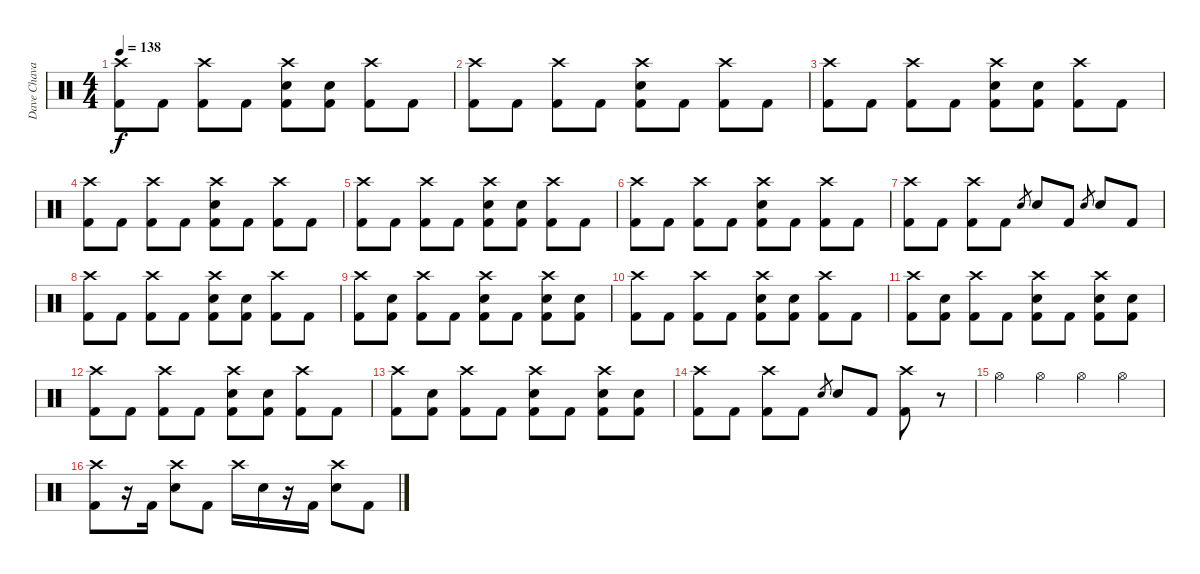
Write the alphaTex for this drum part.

\track ("Dave Chavarri - Drums" "Dave Chava") {instrument percussion}
\staff {score}
\articulation defaults
\ts (4 4)
\tempo 138
\clef neutral
\ks c
("Crash high (hit)" "Kick (hit) 2").8{dy f} "Kick (hit) 2".8 ("Crash high (hit)" "Kick (hit) 2").8 "Kick (hit) 2".8 ("Crash high (hit)" "Electric Snare (hit)" "Kick (hit) 2").8 ("Electric Snare (hit)" "Kick (hit) 2").8 ("Crash high (hit)" "Kick (hit) 2").8 "Kick (hit) 2".8 |
("Crash high (hit)" "Kick (hit) 2").8 "Kick (hit) 2".8 ("Crash high (hit)" "Kick (hit) 2").8 "Kick (hit) 2".8 ("Crash high (hit)" "Electric Snare (hit)" "Kick (hit) 2").8 "Kick (hit) 2".8 ("Crash high (hit)" "Kick (hit) 2").8 "Kick (hit) 2".8 |
("Crash high (hit)" "Kick (hit) 2").8 "Kick (hit) 2".8 ("Crash high (hit)" "Kick (hit) 2").8 "Kick (hit) 2".8 ("Crash high (hit)" "Electric Snare (hit)" "Kick (hit) 2").8 ("Electric Snare (hit)" "Kick (hit) 2").8 ("Crash high (hit)" "Kick (hit) 2").8 "Kick (hit) 2".8 |
("Crash high (hit)" "Kick (hit) 2").8 "Kick (hit) 2".8 ("Crash high (hit)" "Kick (hit) 2").8 "Kick (hit) 2".8 ("Crash high (hit)" "Electric Snare (hit)" "Kick (hit) 2").8 "Kick (hit) 2".8 ("Crash high (hit)" "Kick (hit) 2").8 "Kick (hit) 2".8 |
("Crash high (hit)" "Kick (hit) 2").8 "Kick (hit) 2".8 ("Crash high (hit)" "Kick (hit) 2").8 "Kick (hit) 2".8 ("Crash high (hit)" "Electric Snare (hit)" "Kick (hit) 2").8 ("Electric Snare (hit)" "Kick (hit) 2").8 ("Crash high (hit)" "Kick (hit) 2").8 "Kick (hit) 2".8 |
("Crash high (hit)" "Kick (hit) 2").8 "Kick (hit) 2".8 ("Crash high (hit)" "Kick (hit) 2").8 "Kick (hit) 2".8 ("Crash high (hit)" "Electric Snare (hit)" "Kick (hit) 2").8 "Kick (hit) 2".8 ("Crash high (hit)" "Kick (hit) 2").8 "Kick (hit) 2".8 |
("Crash high (hit)" "Kick (hit) 2").8 "Kick (hit) 2".8 ("Crash high (hit)" "Kick (hit) 2").8 "Kick (hit) 2".8 "Electric Snare (hit)".8{gr} "Electric Snare (hit)".8 "Kick (hit) 2".8 "Electric Snare (hit)".8{gr} "Electric Snare (hit)".8 "Kick (hit) 2".8 |
("Crash high (hit)" "Kick (hit) 2").8 "Kick (hit) 2".8 ("Crash high (hit)" "Kick (hit) 2").8 "Kick (hit) 2".8 ("Crash high (hit)" "Electric Snare (hit)" "Kick (hit) 2").8 ("Electric Snare (hit)" "Kick (hit) 2").8 ("Crash high (hit)" "Kick (hit) 2").8 "Kick (hit) 2".8 |
("Crash high (hit)" "Kick (hit) 2").8 ("Electric Snare (hit)" "Kick (hit) 2").8 ("Crash high (hit)" "Kick (hit) 2").8 "Kick (hit) 2".8 ("Crash high (hit)" "Electric Snare (hit)" "Kick (hit) 2").8 "Kick (hit) 2".8 ("Crash high (hit)" "Electric Snare (hit)" "Kick (hit) 2").8 ("Electric Snare (hit)" "Kick (hit) 2").8 |
("Crash high (hit)" "Kick (hit) 2").8 "Kick (hit) 2".8 ("Crash high (hit)" "Kick (hit) 2").8 "Kick (hit) 2".8 ("Crash high (hit)" "Electric Snare (hit)" "Kick (hit) 2").8 ("Electric Snare (hit)" "Kick (hit) 2").8 ("Crash high (hit)" "Kick (hit) 2").8 "Kick (hit) 2".8 |
("Crash high (hit)" "Kick (hit) 2").8 ("Electric Snare (hit)" "Kick (hit) 2").8 ("Crash high (hit)" "Kick (hit) 2").8 "Kick (hit) 2".8 ("Crash high (hit)" "Electric Snare (hit)" "Kick (hit) 2").8 "Kick (hit) 2".8 ("Crash high (hit)" "Electric Snare (hit)" "Kick (hit) 2").8 ("Electric Snare (hit)" "Kick (hit) 2").8 |
("Crash high (hit)" "Kick (hit) 2").8 "Kick (hit) 2".8 ("Crash high (hit)" "Kick (hit) 2").8 "Kick (hit) 2".8 ("Crash high (hit)" "Electric Snare (hit)" "Kick (hit) 2").8 ("Electric Snare (hit)" "Kick (hit) 2").8 ("Crash high (hit)" "Kick (hit) 2").8 "Kick (hit) 2".8 |
("Crash high (hit)" "Kick (hit) 2").8 ("Electric Snare (hit)" "Kick (hit) 2").8 ("Crash high (hit)" "Kick (hit) 2").8 "Kick (hit) 2".8 ("Crash high (hit)" "Electric Snare (hit)" "Kick (hit) 2").8 "Kick (hit) 2".8 ("Crash high (hit)" "Electric Snare (hit)" "Kick (hit) 2").8 ("Electric Snare (hit)" "Kick (hit) 2").8 |
("Crash high (hit)" "Kick (hit) 2").8 "Kick (hit) 2".8 ("Crash high (hit)" "Kick (hit) 2").8 "Kick (hit) 2".8 "Electric Snare (hit)".8{gr} "Electric Snare (hit)".8 "Kick (hit) 2".8 ("Crash high (hit)" "Kick (hit) 2").8 r.8 |
"Hi-Hat (open)".4 "Hi-Hat (open)".4 "Hi-Hat (open)".4 "Hi-Hat (open)".4 |
("Crash high (hit)" "Kick (hit) 2").8 r.16 "Kick (hit) 2".16 ("Crash high (hit)" "Electric Snare (hit)").8 "Kick (hit) 2".8 "Crash high (hit)".16 "Electric Snare (hit)".16 r.16 "Kick (hit) 2".16 ("Crash high (hit)" "Electric Snare (hit)").8 "Kick (hit) 2".8
